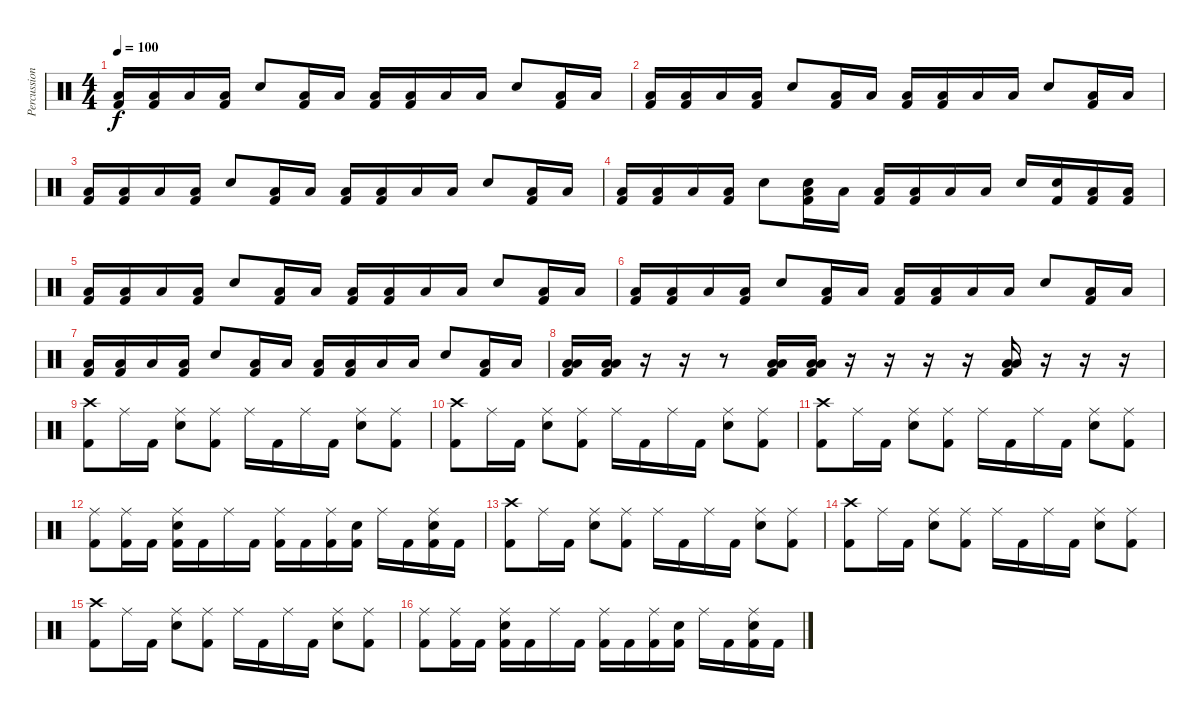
\track ("Percussions" "Percussion") {instrument percussion}
\staff {score}
\articulation defaults
\ts (4 4)
\tempo 100
\clef neutral
\ks c
("Low Floor Tom (hit)" "Kick (hit) 2").16{dy f} ("Low Tom (hit)" "Kick (hit) 2").16 "Low Floor Tom (hit)".16 ("Low Tom (hit)" "Kick (hit) 2").16 "Electric Snare (hit)".8 ("Low Floor Tom (hit)" "Kick (hit) 2").16 "Low Tom (hit)".16 ("Low Floor Tom (hit)" "Kick (hit) 2").16 ("Low Tom (hit)" "Kick (hit) 2").16 "Low Tom (hit)".16 "Low Tom (hit)".16 "Electric Snare (hit)".8 ("Low Floor Tom (hit)" "Kick (hit) 2").16 "Low Floor Tom (hit)".16 |
("Low Floor Tom (hit)" "Kick (hit) 2").16 ("Low Tom (hit)" "Kick (hit) 2").16 "Low Floor Tom (hit)".16 ("Low Tom (hit)" "Kick (hit) 2").16 "Electric Snare (hit)".8 ("Low Floor Tom (hit)" "Kick (hit) 2").16 "Low Tom (hit)".16 ("Low Floor Tom (hit)" "Kick (hit) 2").16 ("Low Tom (hit)" "Kick (hit) 2").16 "Low Tom (hit)".16 "Low Tom (hit)".16 "Electric Snare (hit)".8 ("Low Floor Tom (hit)" "Kick (hit) 2").16 "Low Floor Tom (hit)".16 |
("Low Floor Tom (hit)" "Kick (hit) 2").16 ("Low Tom (hit)" "Kick (hit) 2").16 "Low Floor Tom (hit)".16 ("Low Tom (hit)" "Kick (hit) 2").16 "Electric Snare (hit)".8 ("Low Floor Tom (hit)" "Kick (hit) 2").16 "Low Tom (hit)".16 ("Low Floor Tom (hit)" "Kick (hit) 2").16 ("Low Tom (hit)" "Kick (hit) 2").16 "Low Tom (hit)".16 "Low Tom (hit)".16 "Electric Snare (hit)".8 ("Low Floor Tom (hit)" "Kick (hit) 2").16 "Low Floor Tom (hit)".16 |
("Low Floor Tom (hit)" "Kick (hit) 2").16 ("Low Tom (hit)" "Kick (hit) 2").16 "Low Floor Tom (hit)".16 ("Low Tom (hit)" "Kick (hit) 2").16 "Electric Snare (hit)".8 ("Electric Snare (hit)" "Low Floor Tom (hit)" "Kick (hit) 2").16 "Low Tom (hit)".16 ("Low Floor Tom (hit)" "Kick (hit) 2").16 ("Low Tom (hit)" "Kick (hit) 2").16 "Low Tom (hit)".16 "Low Tom (hit)".16 "Electric Snare (hit)".16 ("Electric Snare (hit)" "Kick (hit) 2").16 ("Low Floor Tom (hit)" "Kick (hit) 2").16 ("Low Floor Tom (hit)" "Kick (hit) 2").16 |
("Low Floor Tom (hit)" "Kick (hit) 2").16 ("Low Tom (hit)" "Kick (hit) 2").16 "Low Floor Tom (hit)".16 ("Low Tom (hit)" "Kick (hit) 2").16 "Electric Snare (hit)".8 ("Low Floor Tom (hit)" "Kick (hit) 2").16 "Low Tom (hit)".16 ("Low Floor Tom (hit)" "Kick (hit) 2").16 ("Low Tom (hit)" "Kick (hit) 2").16 "Low Tom (hit)".16 "Low Tom (hit)".16 "Electric Snare (hit)".8 ("Low Floor Tom (hit)" "Kick (hit) 2").16 "Low Floor Tom (hit)".16 |
("Low Floor Tom (hit)" "Kick (hit) 2").16 ("Low Tom (hit)" "Kick (hit) 2").16 "Low Floor Tom (hit)".16 ("Low Tom (hit)" "Kick (hit) 2").16 "Electric Snare (hit)".8 ("Low Floor Tom (hit)" "Kick (hit) 2").16 "Low Tom (hit)".16 ("Low Floor Tom (hit)" "Kick (hit) 2").16 ("Low Tom (hit)" "Kick (hit) 2").16 "Low Tom (hit)".16 "Low Tom (hit)".16 "Electric Snare (hit)".8 ("Low Floor Tom (hit)" "Kick (hit) 2").16 "Low Floor Tom (hit)".16 |
("Low Floor Tom (hit)" "Kick (hit) 2").16 ("Low Tom (hit)" "Kick (hit) 2").16 "Low Floor Tom (hit)".16 ("Low Tom (hit)" "Kick (hit) 2").16 "Electric Snare (hit)".8 ("Low Floor Tom (hit)" "Kick (hit) 2").16 "Low Tom (hit)".16 ("Low Floor Tom (hit)" "Kick (hit) 2").16 ("Low Tom (hit)" "Kick (hit) 2").16 "Low Tom (hit)".16 "Low Tom (hit)".16 "Electric Snare (hit)".8 ("Low Floor Tom (hit)" "Kick (hit) 2").16 "Low Floor Tom (hit)".16 |
("Low Tom (hit)" "Low Floor Tom (hit)" "Kick (hit) 2").16 ("Low Tom (hit)" "Low Floor Tom (hit)" "Kick (hit) 2").16 r.16 r.16 r.8 ("Low Tom (hit)" "Low Floor Tom (hit)" "Kick (hit) 2").16 ("Low Tom (hit)" "Low Floor Tom (hit)" "Kick (hit) 2").16 r.16 r.16 r.16 r.16 ("Low Tom (hit)" "Low Floor Tom (hit)" "Kick (hit) 2").16 r.16 r.16 r.16 |
("Crash high (hit)" "Kick (hit) 2").8 "Ride (middle)".16 "Kick (hit) 2".16 ("Ride (middle)" "Electric Snare (hit)").8 ("Ride (middle)" "Kick (hit) 2").8 "Ride (middle)".16 "Kick (hit) 2".16 "Ride (middle)".16 "Kick (hit) 2".16 ("Ride (middle)" "Electric Snare (hit)").8 ("Ride (middle)" "Kick (hit) 2").8 |
("Crash high (hit)" "Kick (hit) 2").8 "Ride (middle)".16 "Kick (hit) 2".16 ("Ride (middle)" "Electric Snare (hit)").8 ("Ride (middle)" "Kick (hit) 2").8 "Ride (middle)".16 "Kick (hit) 2".16 "Ride (middle)".16 "Kick (hit) 2".16 ("Ride (middle)" "Electric Snare (hit)").8 ("Ride (middle)" "Kick (hit) 2").8 |
("Crash high (hit)" "Kick (hit) 2").8 "Ride (middle)".16 "Kick (hit) 2".16 ("Ride (middle)" "Electric Snare (hit)").8 ("Ride (middle)" "Kick (hit) 2").8 "Ride (middle)".16 "Kick (hit) 2".16 "Ride (middle)".16 "Kick (hit) 2".16 ("Ride (middle)" "Electric Snare (hit)").8 ("Ride (middle)" "Kick (hit) 2").8 |
("Ride (middle)" "Kick (hit) 2").8 ("Ride (middle)" "Kick (hit) 2").16 "Kick (hit) 2".16 ("Ride (middle)" "Electric Snare (hit)" "Kick (hit) 2").16 "Kick (hit) 2".16 "Ride (middle)".16 "Kick (hit) 2".16 ("Ride (middle)" "Kick (hit) 2").16 "Kick (hit) 2".16 ("Ride (middle)" "Kick (hit) 2").16 ("Electric Snare (hit)" "Kick (hit) 2").16 "Ride (middle)".16 "Kick (hit) 2".16 ("Ride (middle)" "Electric Snare (hit)" "Kick (hit) 2").16 "Kick (hit) 2".16 |
("Crash high (hit)" "Kick (hit) 2").8 "Ride (middle)".16 "Kick (hit) 2".16 ("Ride (middle)" "Electric Snare (hit)").8 ("Ride (middle)" "Kick (hit) 2").8 "Ride (middle)".16 "Kick (hit) 2".16 "Ride (middle)".16 "Kick (hit) 2".16 ("Ride (middle)" "Electric Snare (hit)").8 ("Ride (middle)" "Kick (hit) 2").8 |
("Crash high (hit)" "Kick (hit) 2").8 "Ride (middle)".16 "Kick (hit) 2".16 ("Ride (middle)" "Electric Snare (hit)").8 ("Ride (middle)" "Kick (hit) 2").8 "Ride (middle)".16 "Kick (hit) 2".16 "Ride (middle)".16 "Kick (hit) 2".16 ("Ride (middle)" "Electric Snare (hit)").8 ("Ride (middle)" "Kick (hit) 2").8 |
("Crash high (hit)" "Kick (hit) 2").8 "Ride (middle)".16 "Kick (hit) 2".16 ("Ride (middle)" "Electric Snare (hit)").8 ("Ride (middle)" "Kick (hit) 2").8 "Ride (middle)".16 "Kick (hit) 2".16 "Ride (middle)".16 "Kick (hit) 2".16 ("Ride (middle)" "Electric Snare (hit)").8 ("Ride (middle)" "Kick (hit) 2").8 |
("Ride (middle)" "Kick (hit) 2").8 ("Ride (middle)" "Kick (hit) 2").16 "Kick (hit) 2".16 ("Ride (middle)" "Electric Snare (hit)" "Kick (hit) 2").16 "Kick (hit) 2".16 "Ride (middle)".16 "Kick (hit) 2".16 ("Ride (middle)" "Kick (hit) 2").16 "Kick (hit) 2".16 ("Ride (middle)" "Kick (hit) 2").16 ("Electric Snare (hit)" "Kick (hit) 2").16 "Ride (middle)".16 "Kick (hit) 2".16 ("Ride (middle)" "Electric Snare (hit)" "Kick (hit) 2").16 "Kick (hit) 2".16
